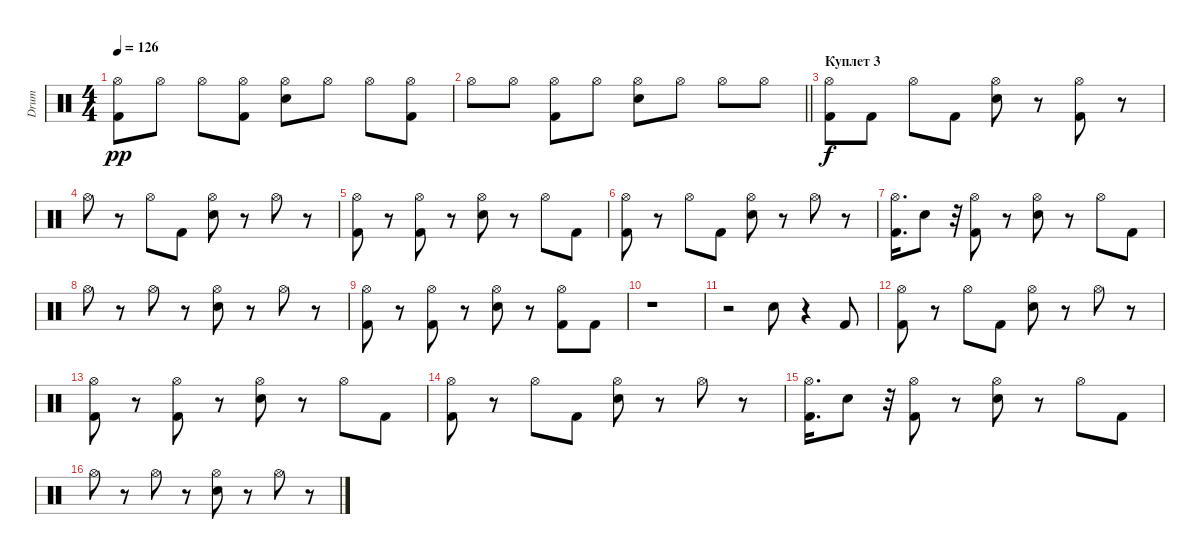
\track ("Drum" "Drum") {instrument percussion}
\staff {score}
\articulation defaults
\ts (4 4)
\tempo 126
\clef neutral
\ks c
("Kick (hit) 2" "Hi-Hat (open)").8{dy pp} "Hi-Hat (open)".8 "Hi-Hat (open)".8 ("Hi-Hat (open)" "Kick (hit) 2").8 ("Snare (hit) 2" "Hi-Hat (open)").8 "Hi-Hat (open)".8 "Hi-Hat (open)".8 ("Hi-Hat (open)" "Kick (hit) 2").8 |
\barLineRight lightlight "Hi-Hat (open)".8 "Hi-Hat (open)".8
("Hi-Hat (open)" "Kick (hit) 2").8 "Hi-Hat (open)".8 ("Snare (hit) 2" "Hi-Hat (open)").8 "Hi-Hat (open)".8 "Hi-Hat (open)".8 "Hi-Hat (open)".8 |
\section ("" "Куплет 3")
("Hi-Hat (open)" "Kick (hit) 2").8{dy f} "Kick (hit) 2".8 "Hi-Hat (open)".8 "Kick (hit) 2".8 ("Hi-Hat (open)" "Snare (hit) 2").8 r.8 ("Kick (hit) 2" "Hi-Hat (open)").8 r.8 |
"Hi-Hat (open)".8 r.8 "Hi-Hat (open)".8 "Kick (hit) 2".8 ("Hi-Hat (open)" "Snare (hit) 2").8 r.8 "Hi-Hat (open)".8 r.8 |
("Hi-Hat (open)" "Kick (hit) 2").8 r.8 ("Hi-Hat (open)" "Kick (hit) 2").8 r.8 ("Hi-Hat (open)" "Snare (hit) 2").8 r.8 "Hi-Hat (open)".8 "Kick (hit) 2".8 |
("Hi-Hat (open)" "Kick (hit) 2").8 r.8 "Hi-Hat (open)".8 "Kick (hit) 2".8 ("Hi-Hat (open)" "Snare (hit) 2").8 r.8 "Hi-Hat (open)".8 r.8 |
("Hi-Hat (open)" "Kick (hit) 2").16{d} "Snare (hit) 2".8 r.32 ("Hi-Hat (open)" "Kick (hit) 2").8 r.8 ("Hi-Hat (open)" "Snare (hit) 2").8 r.8 "Hi-Hat (open)".8 "Kick (hit) 2".8 |
"Hi-Hat (open)".8 r.8 "Hi-Hat (open)".8 r.8 ("Hi-Hat (open)" "Snare (hit) 2").8 r.8 "Hi-Hat (open)".8 r.8 |
("Hi-Hat (open)" "Kick (hit) 2").8 r.8 ("Kick (hit) 2" "Hi-Hat (open)").8 r.8 ("Hi-Hat (open)" "Snare (hit) 2").8 r.8 ("Kick (hit) 2" "Hi-Hat (open)").8 "Kick (hit) 2".8 |
r.1 |
r.2 "Snare (hit) 2".8 r.4 "Kick (hit) 2".8 |
("Hi-Hat (open)" "Kick (hit) 2").8 r.8 "Hi-Hat (open)".8 "Kick (hit) 2".8 ("Hi-Hat (open)" "Snare (hit) 2").8 r.8 "Hi-Hat (open)".8 r.8 |
("Hi-Hat (open)" "Kick (hit) 2").8 r.8 ("Hi-Hat (open)" "Kick (hit) 2").8 r.8 ("Hi-Hat (open)" "Snare (hit) 2").8 r.8 "Hi-Hat (open)".8 "Kick (hit) 2".8 |
("Hi-Hat (open)" "Kick (hit) 2").8 r.8 "Hi-Hat (open)".8 "Kick (hit) 2".8 ("Hi-Hat (open)" "Snare (hit) 2").8 r.8 "Hi-Hat (open)".8 r.8 |
("Hi-Hat (open)" "Kick (hit) 2").16{d} "Snare (hit) 2".8 r.32 ("Hi-Hat (open)" "Kick (hit) 2").8 r.8 ("Hi-Hat (open)" "Snare (hit) 2").8 r.8 "Hi-Hat (open)".8 "Kick (hit) 2".8 |
"Hi-Hat (open)".8 r.8 "Hi-Hat (open)".8 r.8 ("Hi-Hat (open)" "Snare (hit) 2").8 r.8 "Hi-Hat (open)".8 r.8
